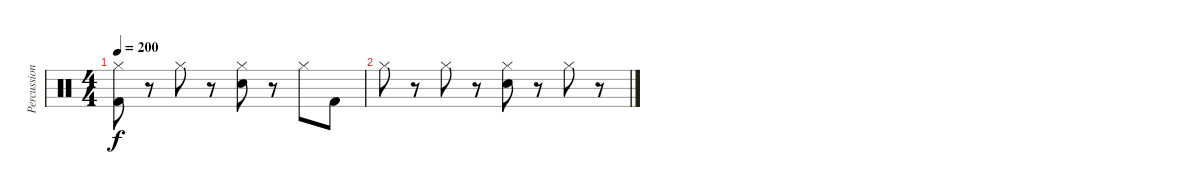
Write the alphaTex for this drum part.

\track ("Percussion" "Percussion") {instrument percussion}
\staff {score}
\articulation defaults
\ts (4 4)
\tempo 200
\clef neutral
\ks c
("Hi-Hat (closed)" "Kick (hit) 2").8{dy f} r.8 "Hi-Hat (closed)".8 r.8 ("Hi-Hat (closed)" "Snare (hit) 2").8 r.8 "Hi-Hat (closed)".8 "Kick (hit) 2".8 |
"Hi-Hat (closed)".8 r.8 "Hi-Hat (closed)".8 r.8 ("Hi-Hat (closed)" "Snare (hit) 2").8 r.8 "Hi-Hat (closed)".8 r.8
